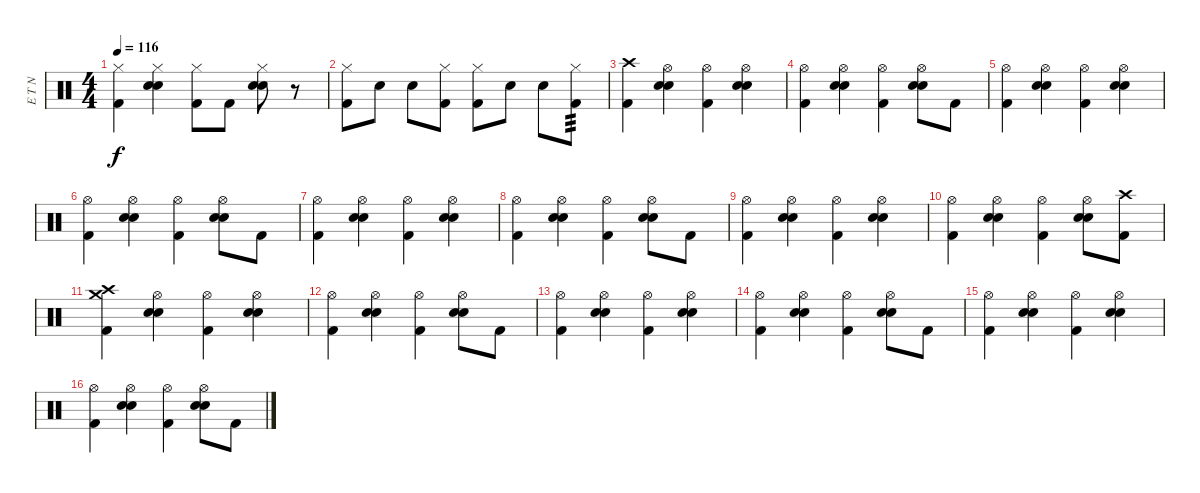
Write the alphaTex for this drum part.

\track ("E T N" "E T N") {instrument percussion}
\staff {score}
\articulation defaults
\ts (4 4)
\tempo 116
\clef neutral
\ks c
("Hi-Hat (closed)" "Kick (hit) 2").4{dy f} ("Hi-Hat (closed)" "Electric Snare (hit)" "Electric Snare (hit)").4 ("Hi-Hat (closed)" "Kick (hit) 2").8 "Kick (hit) 2".8 ("Hi-Hat (closed)" "Electric Snare (hit)" "Electric Snare (hit)").8 r.8 |
("Hi-Hat (closed)" "Kick (hit) 2").8 "Electric Snare (hit)".8 "Electric Snare (hit)".8 ("Hi-Hat (closed)" "Kick (hit) 2").8 ("Hi-Hat (closed)" "Kick (hit) 2").8 "Electric Snare (hit)".8 "Electric Snare (hit)".8 ("Hi-Hat (closed)" "Kick (hit) 2").8{tp 3} |
("Crash high (hit)" "Kick (hit) 2").4 ("Hi-Hat (open)" "Electric Snare (hit)" "Electric Snare (hit)").4 ("Hi-Hat (open)" "Kick (hit) 2").4 ("Hi-Hat (open)" "Electric Snare (hit)" "Electric Snare (hit)").4 |
("Hi-Hat (open)" "Kick (hit) 2").4 ("Hi-Hat (open)" "Electric Snare (hit)" "Electric Snare (hit)").4 ("Hi-Hat (open)" "Kick (hit) 2").4 ("Hi-Hat (open)" "Electric Snare (hit)" "Electric Snare (hit)").8 "Kick (hit) 2".8 |
("Hi-Hat (open)" "Kick (hit) 2").4 ("Hi-Hat (open)" "Electric Snare (hit)" "Electric Snare (hit)").4 ("Hi-Hat (open)" "Kick (hit) 2").4 ("Hi-Hat (open)" "Electric Snare (hit)" "Electric Snare (hit)").4 |
("Hi-Hat (open)" "Kick (hit) 2").4 ("Hi-Hat (open)" "Electric Snare (hit)" "Electric Snare (hit)").4 ("Hi-Hat (open)" "Kick (hit) 2").4 ("Hi-Hat (open)" "Electric Snare (hit)" "Electric Snare (hit)").8 "Kick (hit) 2".8 |
("Hi-Hat (open)" "Kick (hit) 2").4 ("Hi-Hat (open)" "Electric Snare (hit)" "Electric Snare (hit)").4 ("Hi-Hat (open)" "Kick (hit) 2").4 ("Hi-Hat (open)" "Electric Snare (hit)" "Electric Snare (hit)").4 |
("Hi-Hat (open)" "Kick (hit) 2").4 ("Hi-Hat (open)" "Electric Snare (hit)" "Electric Snare (hit)").4 ("Hi-Hat (open)" "Kick (hit) 2").4 ("Hi-Hat (open)" "Electric Snare (hit)" "Electric Snare (hit)").8 "Kick (hit) 2".8 |
("Hi-Hat (open)" "Kick (hit) 2").4 ("Hi-Hat (open)" "Electric Snare (hit)" "Electric Snare (hit)").4 ("Hi-Hat (open)" "Kick (hit) 2").4 ("Hi-Hat (open)" "Electric Snare (hit)" "Electric Snare (hit)").4 |
("Hi-Hat (open)" "Kick (hit) 2").4 ("Hi-Hat (open)" "Electric Snare (hit)" "Electric Snare (hit)").4 ("Hi-Hat (open)" "Kick (hit) 2").4 ("Hi-Hat (open)" "Electric Snare (hit)" "Electric Snare (hit)").8 ("Crash high (hit)" "Kick (hit) 2").8 |
("Crash high (hit)" "Crash medium (hit)" "Kick (hit) 2").4 ("Hi-Hat (open)" "Electric Snare (hit)" "Electric Snare (hit)").4 ("Hi-Hat (open)" "Kick (hit) 2").4 ("Hi-Hat (open)" "Electric Snare (hit)" "Electric Snare (hit)").4 |
("Hi-Hat (open)" "Kick (hit) 2").4 ("Hi-Hat (open)" "Electric Snare (hit)" "Electric Snare (hit)").4 ("Hi-Hat (open)" "Kick (hit) 2").4 ("Hi-Hat (open)" "Electric Snare (hit)" "Electric Snare (hit)").8 "Kick (hit) 2".8 |
("Hi-Hat (open)" "Kick (hit) 2").4 ("Hi-Hat (open)" "Electric Snare (hit)" "Electric Snare (hit)").4 ("Hi-Hat (open)" "Kick (hit) 2").4 ("Hi-Hat (open)" "Electric Snare (hit)" "Electric Snare (hit)").4 |
("Hi-Hat (open)" "Kick (hit) 2").4 ("Hi-Hat (open)" "Electric Snare (hit)" "Electric Snare (hit)").4 ("Hi-Hat (open)" "Kick (hit) 2").4 ("Hi-Hat (open)" "Electric Snare (hit)" "Electric Snare (hit)").8 "Kick (hit) 2".8 |
("Hi-Hat (open)" "Kick (hit) 2").4 ("Hi-Hat (open)" "Electric Snare (hit)" "Electric Snare (hit)").4 ("Hi-Hat (open)" "Kick (hit) 2").4 ("Hi-Hat (open)" "Electric Snare (hit)" "Electric Snare (hit)").4 |
("Hi-Hat (open)" "Kick (hit) 2").4 ("Hi-Hat (open)" "Electric Snare (hit)" "Electric Snare (hit)").4 ("Hi-Hat (open)" "Kick (hit) 2").4 ("Hi-Hat (open)" "Electric Snare (hit)" "Electric Snare (hit)").8 "Kick (hit) 2".8
